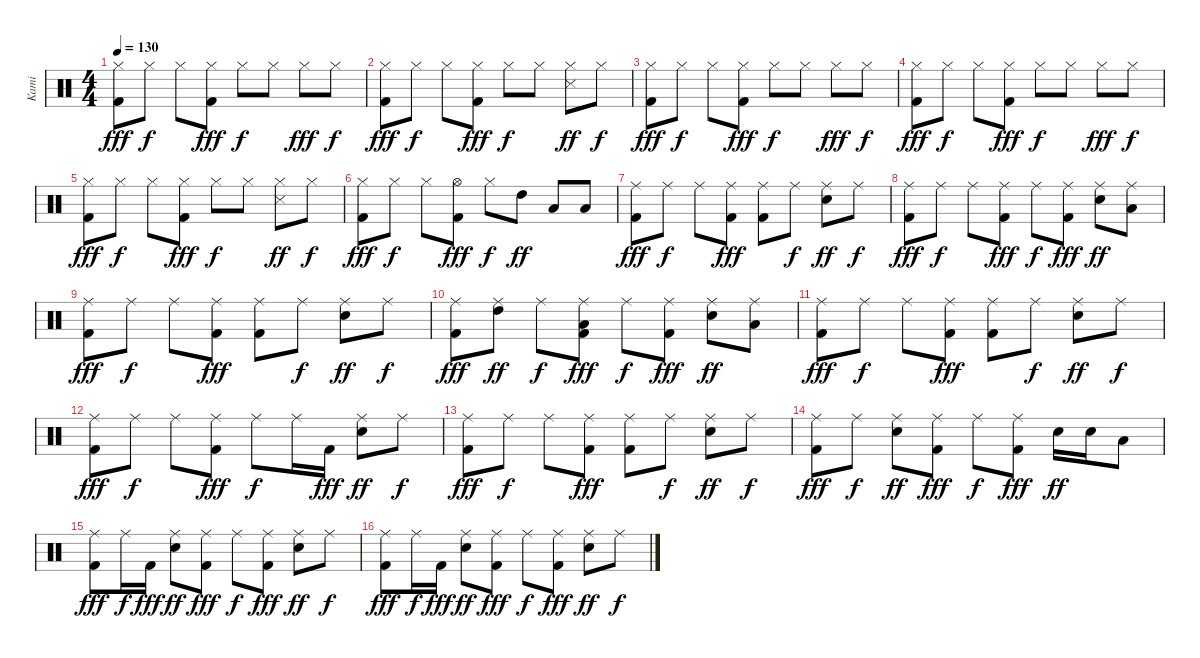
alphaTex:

\track ("Kami" "Kami") {instrument percussion}
\staff {score}
\articulation defaults
\ts (4 4)
\tempo 130
\clef neutral
\ks c
("Hi-Hat (closed)" "Kick (hit) 2").8{dy fff} "Hi-Hat (closed)".8{dy f} "Hi-Hat (closed)".8 ("Hi-Hat (closed)" "Kick (hit) 2").8{dy fff} "Hi-Hat (closed)".8{dy f} "Hi-Hat (closed)".8 "Hi-Hat (closed)".8{dy fff} "Hi-Hat (closed)".8{dy f} |
("Hi-Hat (closed)" "Kick (hit) 2").8{dy fff} "Hi-Hat (closed)".8{dy f} "Hi-Hat (closed)".8 ("Hi-Hat (closed)" "Kick (hit) 2").8{dy fff} "Hi-Hat (closed)".8{dy f} "Hi-Hat (closed)".8 ("Hi-Hat (closed)" "Snare (side stick) 3").8{dy ff} "Hi-Hat (closed)".8{dy f} |
("Hi-Hat (closed)" "Kick (hit) 2").8{dy fff} "Hi-Hat (closed)".8{dy f} "Hi-Hat (closed)".8 ("Hi-Hat (closed)" "Kick (hit) 2").8{dy fff} "Hi-Hat (closed)".8{dy f} "Hi-Hat (closed)".8 "Hi-Hat (closed)".8{dy fff} "Hi-Hat (closed)".8{dy f} |
("Hi-Hat (closed)" "Kick (hit) 2").8{dy fff} "Hi-Hat (closed)".8{dy f} "Hi-Hat (closed)".8 ("Hi-Hat (closed)" "Kick (hit) 2").8{dy fff} "Hi-Hat (closed)".8{dy f} "Hi-Hat (closed)".8 "Hi-Hat (closed)".8{dy fff} "Hi-Hat (closed)".8{dy f} |
("Hi-Hat (closed)" "Kick (hit) 2").8{dy fff} "Hi-Hat (closed)".8{dy f} "Hi-Hat (closed)".8 ("Hi-Hat (closed)" "Kick (hit) 2").8{dy fff} "Hi-Hat (closed)".8{dy f} "Hi-Hat (closed)".8 ("Hi-Hat (closed)" "Snare (side stick) 3").8{dy ff} "Hi-Hat (closed)".8{dy f} |
("Hi-Hat (closed)" "Kick (hit) 2").8{dy fff} "Hi-Hat (closed)".8{dy f} "Hi-Hat (closed)".8 ("Hi-Hat (open)" "Kick (hit) 2").8{dy fff} "Hi-Hat (closed)".8{dy f} "High Tom (hit)".8{dy ff} "Low Tom (hit)".8 "Low Tom (hit)".8 |
("Ride (middle)" "Kick (hit) 2").8{dy fff} "Ride (middle)".8{dy f} "Ride (middle)".8 ("Ride (middle)" "Kick (hit) 2").8{dy fff} ("Ride (middle)" "Kick (hit) 2").8 "Ride (middle)".8{dy f} ("Ride (middle)" "Snare (hit) 2").8{dy ff} "Ride (middle)".8{dy f} |
("Ride (middle)" "Kick (hit) 2").8{dy fff} "Ride (middle)".8{dy f} "Ride (middle)".8 ("Ride (middle)" "Kick (hit) 2").8{dy fff} "Ride (middle)".8{dy f} ("Ride (middle)" "Kick (hit) 2").8{dy fff} ("Ride (middle)" "Snare (hit) 2").8{dy ff} ("Ride (middle)" "Low Tom (hit)").8 |
("Ride (middle)" "Kick (hit) 2").8{dy fff} "Ride (middle)".8{dy f} "Ride (middle)".8 ("Ride (middle)" "Kick (hit) 2").8{dy fff} ("Ride (middle)" "Kick (hit) 2").8 "Ride (middle)".8{dy f} ("Ride (middle)" "Snare (hit) 2").8{dy ff} "Ride (middle)".8{dy f} |
("Ride (middle)" "Kick (hit) 2").8{dy fff} ("Ride (middle)" "High Tom (hit)").8{dy ff} "Ride (middle)".8{dy f} ("Ride (middle)" "Low Tom (hit)" "Kick (hit) 2").8{dy fff} "Ride (middle)".8{dy f} ("Ride (middle)" "Kick (hit) 2").8{dy fff} ("Ride (middle)" "Snare (hit) 2").8{dy ff} ("Ride (middle)" "Low Tom (hit)").8 |
("Ride (middle)" "Kick (hit) 2").8{dy fff} "Ride (middle)".8{dy f} "Ride (middle)".8 ("Ride (middle)" "Kick (hit) 2").8{dy fff} ("Ride (middle)" "Kick (hit) 2").8 "Ride (middle)".8{dy f} ("Ride (middle)" "Snare (hit) 2").8{dy ff} "Ride (middle)".8{dy f} |
("Ride (middle)" "Kick (hit) 2").8{dy fff} "Ride (middle)".8{dy f} "Ride (middle)".8 ("Ride (middle)" "Kick (hit) 2").8{dy fff} "Ride (middle)".8{dy f} "Ride (middle)".16 "Kick (hit) 2".16{dy fff} ("Ride (middle)" "Snare (hit) 2").8{dy ff} "Ride (middle)".8{dy f} |
("Ride (middle)" "Kick (hit) 2").8{dy fff} "Ride (middle)".8{dy f} "Ride (middle)".8 ("Ride (middle)" "Kick (hit) 2").8{dy fff} ("Ride (middle)" "Kick (hit) 2").8 "Ride (middle)".8{dy f} ("Ride (middle)" "Snare (hit) 2").8{dy ff} "Ride (middle)".8{dy f} |
("Ride (middle)" "Kick (hit) 2").8{dy fff} "Ride (middle)".8{dy f} ("Ride (middle)" "Snare (hit) 2").8{dy ff} ("Ride (middle)" "Kick (hit) 2").8{dy fff} "Ride (middle)".8{dy f} ("Ride (middle)" "Kick (hit) 2").8{dy fff} "Snare (hit) 2".16{dy ff} "Snare (hit) 2".16 "Low Floor Tom (hit)".8 |
("Ride (middle)" "Kick (hit) 2").8{dy fff} "Ride (middle)".16{dy f} "Kick (hit) 2".16{dy fff} ("Ride (middle)" "Snare (hit) 2").8{dy ff} ("Ride (middle)" "Kick (hit) 2").8{dy fff} "Ride (middle)".8{dy f} ("Ride (middle)" "Kick (hit) 2").8{dy fff} ("Ride (middle)" "Snare (hit) 2").8{dy ff} "Ride (middle)".8{dy f} |
("Ride (middle)" "Kick (hit) 2").8{dy fff} "Ride (middle)".16{dy f} "Kick (hit) 2".16{dy fff} ("Ride (middle)" "Snare (hit) 2").8{dy ff} ("Ride (middle)" "Kick (hit) 2").8{dy fff} "Ride (middle)".8{dy f} ("Ride (middle)" "Kick (hit) 2").8{dy fff} ("Ride (middle)" "Snare (hit) 2").8{dy ff} "Ride (middle)".8{dy f}
